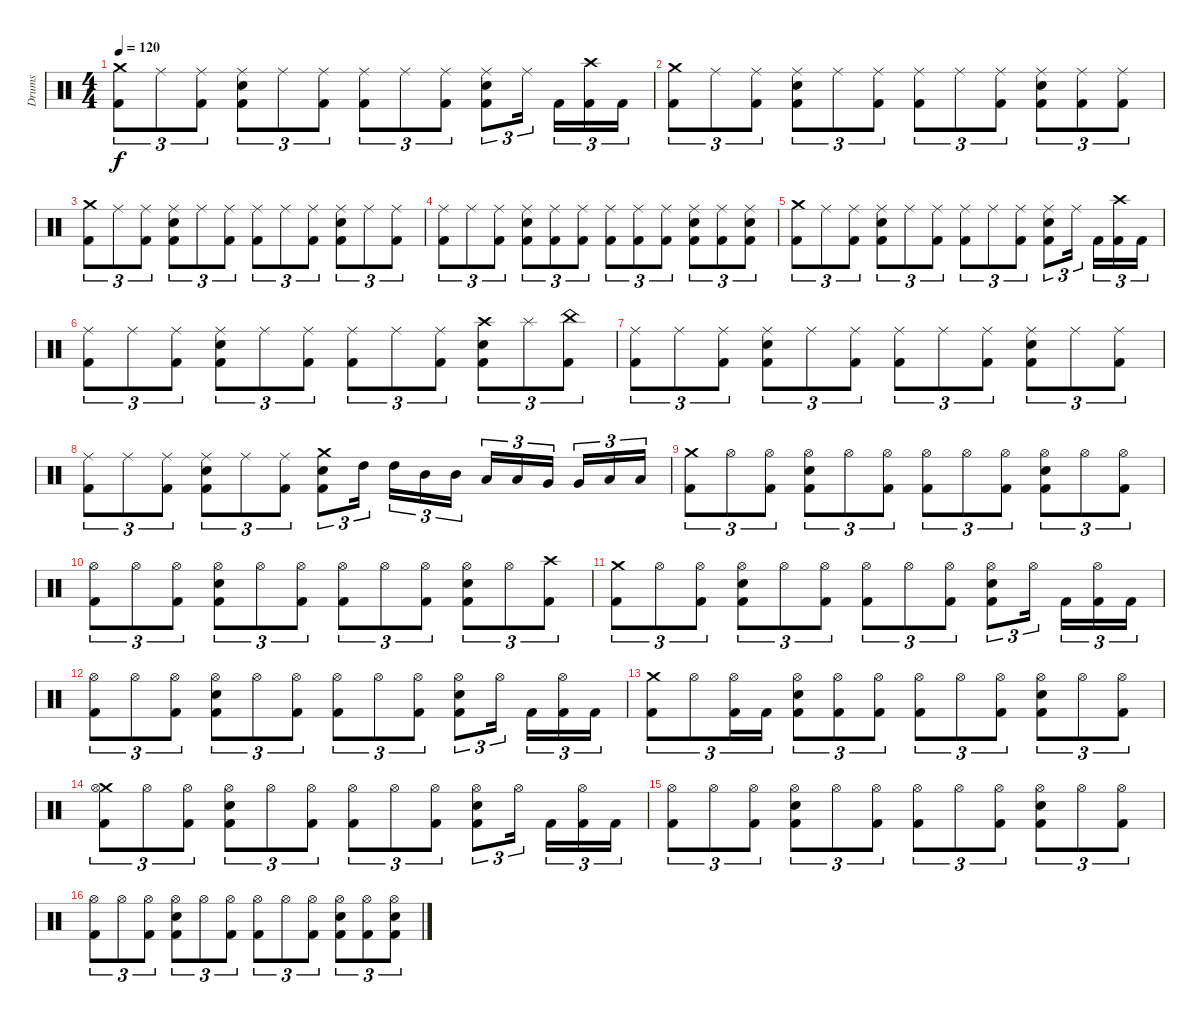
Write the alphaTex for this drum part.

\track ("Drums" "Drums") {instrument percussion}
\staff {score}
\articulation defaults
\ts (4 4)
\tempo 120
\clef neutral
\ks c
("Crash medium (hit)" "Kick (hit) 2").8{tu (3 2) dy f} "Ride (middle)".8{tu (3 2)} ("Ride (middle)" "Kick (hit) 2").8{tu (3 2)} ("Ride (middle)" "Snare (hit) 2" "Kick (hit) 2").8{tu (3 2)} "Ride (middle)".8{tu (3 2)} ("Ride (middle)" "Kick (hit) 2").8{tu (3 2)} ("Ride (middle)" "Kick (hit) 2").8{tu (3 2)} "Ride (middle)".8{tu (3 2)} ("Ride (middle)" "Kick (hit) 2").8{tu (3 2)} ("Ride (middle)" "Snare (hit) 2" "Kick (hit) 2").8{tu (3 2)} "Ride (middle)".16{tu (3 2)} "Kick (hit) 2".16{tu (3 2)} ("Crash high (hit)" "Kick (hit) 2").16{tu (3 2)} "Kick (hit) 2".16{tu (3 2)} |
("Crash medium (hit)" "Kick (hit) 2").8{tu (3 2)} "Ride (middle)".8{tu (3 2)} ("Ride (middle)" "Kick (hit) 2").8{tu (3 2)} ("Ride (middle)" "Snare (hit) 2" "Kick (hit) 2").8{tu (3 2)} "Ride (middle)".8{tu (3 2)} ("Ride (middle)" "Kick (hit) 2").8{tu (3 2)} ("Ride (middle)" "Kick (hit) 2").8{tu (3 2)} "Ride (middle)".8{tu (3 2)} ("Ride (middle)" "Kick (hit) 2").8{tu (3 2)} ("Ride (middle)" "Snare (hit) 2" "Kick (hit) 2").8{tu (3 2)} ("Ride (middle)" "Kick (hit) 2").8{tu (3 2)} ("Ride (middle)" "Kick (hit) 2").8{tu (3 2)} |
("Crash medium (hit)" "Kick (hit) 2").8{tu (3 2)} "Ride (middle)".8{tu (3 2)} ("Ride (middle)" "Kick (hit) 2").8{tu (3 2)} ("Ride (middle)" "Snare (hit) 2" "Kick (hit) 2").8{tu (3 2)} "Ride (middle)".8{tu (3 2)} ("Ride (middle)" "Kick (hit) 2").8{tu (3 2)} ("Ride (middle)" "Kick (hit) 2").8{tu (3 2)} "Ride (middle)".8{tu (3 2)} ("Ride (middle)" "Kick (hit) 2").8{tu (3 2)} ("Ride (middle)" "Snare (hit) 2" "Kick (hit) 2").8{tu (3 2)} "Ride (middle)".8{tu (3 2)} ("Ride (middle)" "Kick (hit) 2").8{tu (3 2)} |
("Ride (middle)" "Kick (hit) 2").8{tu (3 2)} "Ride (middle)".8{tu (3 2)} ("Ride (middle)" "Kick (hit) 2").8{tu (3 2)} ("Ride (middle)" "Snare (hit) 2" "Kick (hit) 2").8{tu (3 2)} ("Ride (middle)" "Kick (hit) 2").8{tu (3 2)} ("Ride (middle)" "Kick (hit) 2").8{tu (3 2)} ("Ride (middle)" "Kick (hit) 2").8{tu (3 2)} ("Ride (middle)" "Kick (hit) 2").8{tu (3 2)} ("Ride (middle)" "Kick (hit) 2").8{tu (3 2)} ("Ride (middle)" "Snare (hit) 2" "Kick (hit) 2").8{tu (3 2)} ("Ride (middle)" "Kick (hit) 2").8{tu (3 2)} ("Ride (middle)" "Snare (hit) 2" "Kick (hit) 2").8{tu (3 2)} |
("Crash medium (hit)" "Kick (hit) 2").8{tu (3 2)} "Ride (middle)".8{tu (3 2)} ("Ride (middle)" "Kick (hit) 2").8{tu (3 2)} ("Ride (middle)" "Snare (hit) 2" "Kick (hit) 2").8{tu (3 2)} "Ride (middle)".8{tu (3 2)} ("Ride (middle)" "Kick (hit) 2").8{tu (3 2)} ("Ride (middle)" "Kick (hit) 2").8{tu (3 2)} "Ride (middle)".8{tu (3 2)} ("Ride (middle)" "Kick (hit) 2").8{tu (3 2)} ("Ride (middle)" "Snare (hit) 2" "Kick (hit) 2").8{tu (3 2)} "Ride (middle)".16{tu (3 2)} "Kick (hit) 2".16{tu (3 2)} ("Crash high (hit)" "Kick (hit) 2").16{tu (3 2)} "Kick (hit) 2".16{tu (3 2)} |
("Ride (middle)" "Kick (hit) 2").8{tu (3 2)} "Ride (middle)".8{tu (3 2)} ("Ride (middle)" "Kick (hit) 2").8{tu (3 2)} ("Ride (middle)" "Snare (hit) 2" "Kick (hit) 2").8{tu (3 2)} "Ride (middle)".8{tu (3 2)} ("Ride (middle)" "Kick (hit) 2").8{tu (3 2)} ("Ride (middle)" "Kick (hit) 2").8{tu (3 2)} "Ride (middle)".8{tu (3 2)} ("Ride (middle)" "Kick (hit) 2").8{tu (3 2)} ("Crash high (hit)" "Snare (hit) 2" "Kick (hit) 2").8{tu (3 2)} "Splash (hit)".8{tu (3 2)} ("China (hit)" "Kick (hit) 2").8{tu (3 2)} |
("Ride (middle)" "Kick (hit) 2").8{tu (3 2)} "Ride (middle)".8{tu (3 2)} ("Ride (middle)" "Kick (hit) 2").8{tu (3 2)} ("Ride (middle)" "Snare (hit) 2" "Kick (hit) 2").8{tu (3 2)} "Ride (middle)".8{tu (3 2)} ("Ride (middle)" "Kick (hit) 2").8{tu (3 2)} ("Ride (middle)" "Kick (hit) 2").8{tu (3 2)} "Ride (middle)".8{tu (3 2)} ("Ride (middle)" "Kick (hit) 2").8{tu (3 2)} ("Ride (middle)" "Snare (hit) 2" "Kick (hit) 2").8{tu (3 2)} "Ride (middle)".8{tu (3 2)} ("Ride (middle)" "Kick (hit) 2").8{tu (3 2)} |
("Ride (middle)" "Kick (hit) 2").8{tu (3 2)} "Ride (middle)".8{tu (3 2)} ("Ride (middle)" "Kick (hit) 2").8{tu (3 2)} ("Ride (middle)" "Snare (hit) 2" "Kick (hit) 2").8{tu (3 2)} "Ride (middle)".8{tu (3 2)} ("Ride (middle)" "Kick (hit) 2").8{tu (3 2)} ("Crash medium (hit)" "Snare (hit) 2" "Kick (hit) 2").8{tu (3 2)} "High Tom (hit)".16{tu (3 2)} "High Tom (hit)".16{tu (3 2)} "Mid Tom (hit)".16{tu (3 2)} "Mid Tom (hit)".16{tu (3 2)} "Low Tom (hit)".16{tu (3 2)} "Low Tom (hit)".16{tu (3 2)} "Very Low Tom (hit)".16{tu (3 2)} "Very Low Tom (hit)".16{tu (3 2)} "Low Floor Tom (hit)".16{tu (3 2)} "Low Floor Tom (hit)".16{tu (3 2)} |
("Crash medium (hit)" "Kick (hit) 2").8{tu (3 2)} "Hi-Hat (open)".8{tu (3 2)} ("Hi-Hat (open)" "Kick (hit) 2").8{tu (3 2)} ("Hi-Hat (open)" "Snare (hit) 2" "Kick (hit) 2").8{tu (3 2)} "Hi-Hat (open)".8{tu (3 2)} ("Hi-Hat (open)" "Kick (hit) 2").8{tu (3 2)} ("Hi-Hat (open)" "Kick (hit) 2").8{tu (3 2)} "Hi-Hat (open)".8{tu (3 2)} ("Hi-Hat (open)" "Kick (hit) 2").8{tu (3 2)} ("Hi-Hat (open)" "Snare (hit) 2" "Kick (hit) 2").8{tu (3 2)} "Hi-Hat (open)".8{tu (3 2)} ("Hi-Hat (open)" "Kick (hit) 2").8{tu (3 2)} |
("Hi-Hat (open)" "Kick (hit) 2").8{tu (3 2)} "Hi-Hat (open)".8{tu (3 2)} ("Hi-Hat (open)" "Kick (hit) 2").8{tu (3 2)} ("Hi-Hat (open)" "Snare (hit) 2" "Kick (hit) 2").8{tu (3 2)} "Hi-Hat (open)".8{tu (3 2)} ("Hi-Hat (open)" "Kick (hit) 2").8{tu (3 2)} ("Hi-Hat (open)" "Kick (hit) 2").8{tu (3 2)} "Hi-Hat (open)".8{tu (3 2)} ("Hi-Hat (open)" "Kick (hit) 2").8{tu (3 2)} ("Hi-Hat (open)" "Snare (hit) 2" "Kick (hit) 2").8{tu (3 2)} "Hi-Hat (open)".8{tu (3 2)} ("Crash high (hit)" "Kick (hit) 2").8{tu (3 2)} |
("Crash medium (hit)" "Kick (hit) 2").8{tu (3 2)} "Hi-Hat (open)".8{tu (3 2)} ("Hi-Hat (open)" "Kick (hit) 2").8{tu (3 2)} ("Hi-Hat (open)" "Snare (hit) 2" "Kick (hit) 2").8{tu (3 2)} "Hi-Hat (open)".8{tu (3 2)} ("Hi-Hat (open)" "Kick (hit) 2").8{tu (3 2)} ("Hi-Hat (open)" "Kick (hit) 2").8{tu (3 2)} "Hi-Hat (open)".8{tu (3 2)} ("Hi-Hat (open)" "Kick (hit) 2").8{tu (3 2)} ("Hi-Hat (open)" "Snare (hit) 2" "Kick (hit) 2").8{tu (3 2)} "Hi-Hat (open)".16{tu (3 2)} "Kick (hit) 2".16{tu (3 2)} ("Hi-Hat (open)" "Kick (hit) 2").16{tu (3 2)} "Kick (hit) 2".16{tu (3 2)} |
("Hi-Hat (open)" "Kick (hit) 2").8{tu (3 2)} "Hi-Hat (open)".8{tu (3 2)} ("Hi-Hat (open)" "Kick (hit) 2").8{tu (3 2)} ("Hi-Hat (open)" "Snare (hit) 2" "Kick (hit) 2").8{tu (3 2)} "Hi-Hat (open)".8{tu (3 2)} ("Hi-Hat (open)" "Kick (hit) 2").8{tu (3 2)} ("Hi-Hat (open)" "Kick (hit) 2").8{tu (3 2)} "Hi-Hat (open)".8{tu (3 2)} ("Hi-Hat (open)" "Kick (hit) 2").8{tu (3 2)} ("Hi-Hat (open)" "Snare (hit) 2" "Kick (hit) 2").8{tu (3 2)} "Hi-Hat (open)".16{tu (3 2)} "Kick (hit) 2".16{tu (3 2)} ("Hi-Hat (open)" "Kick (hit) 2").16{tu (3 2)} "Kick (hit) 2".16{tu (3 2)} |
("Crash medium (hit)" "Kick (hit) 2").8{tu (3 2)} "Hi-Hat (open)".8{tu (3 2)} ("Hi-Hat (open)" "Kick (hit) 2").16{tu (3 2)} "Kick (hit) 2".16{tu (3 2)} ("Hi-Hat (open)" "Snare (hit) 2" "Kick (hit) 2").8{tu (3 2)} ("Hi-Hat (open)" "Kick (hit) 2").8{tu (3 2)} ("Hi-Hat (open)" "Kick (hit) 2").8{tu (3 2)} ("Hi-Hat (open)" "Kick (hit) 2").8{tu (3 2)} "Hi-Hat (open)".8{tu (3 2)} ("Hi-Hat (open)" "Kick (hit) 2").8{tu (3 2)} ("Hi-Hat (open)" "Snare (hit) 2" "Kick (hit) 2").8{tu (3 2)} "Hi-Hat (open)".8{tu (3 2)} ("Hi-Hat (open)" "Kick (hit) 2").8{tu (3 2)} |
("Crash medium (hit)" "Hi-Hat (open)" "Kick (hit) 2").8{tu (3 2)} "Hi-Hat (open)".8{tu (3 2)} ("Hi-Hat (open)" "Kick (hit) 2").8{tu (3 2)} ("Hi-Hat (open)" "Snare (hit) 2" "Kick (hit) 2").8{tu (3 2)} "Hi-Hat (open)".8{tu (3 2)} ("Hi-Hat (open)" "Kick (hit) 2").8{tu (3 2)} ("Hi-Hat (open)" "Kick (hit) 2").8{tu (3 2)} "Hi-Hat (open)".8{tu (3 2)} ("Hi-Hat (open)" "Kick (hit) 2").8{tu (3 2)} ("Hi-Hat (open)" "Snare (hit) 2" "Kick (hit) 2").8{tu (3 2)} "Hi-Hat (open)".16{tu (3 2)} "Kick (hit) 2".16{tu (3 2)} ("Hi-Hat (open)" "Kick (hit) 2").16{tu (3 2)} "Kick (hit) 2".16{tu (3 2)} |
("Hi-Hat (open)" "Kick (hit) 2").8{tu (3 2)} "Hi-Hat (open)".8{tu (3 2)} ("Hi-Hat (open)" "Kick (hit) 2").8{tu (3 2)} ("Hi-Hat (open)" "Snare (hit) 2" "Kick (hit) 2").8{tu (3 2)} "Hi-Hat (open)".8{tu (3 2)} ("Hi-Hat (open)" "Kick (hit) 2").8{tu (3 2)} ("Hi-Hat (open)" "Kick (hit) 2").8{tu (3 2)} "Hi-Hat (open)".8{tu (3 2)} ("Hi-Hat (open)" "Kick (hit) 2").8{tu (3 2)} ("Hi-Hat (open)" "Snare (hit) 2" "Kick (hit) 2").8{tu (3 2)} "Hi-Hat (open)".8{tu (3 2)} ("Hi-Hat (open)" "Kick (hit) 2").8{tu (3 2)} |
("Hi-Hat (open)" "Kick (hit) 2").8{tu (3 2)} "Hi-Hat (open)".8{tu (3 2)} ("Hi-Hat (open)" "Kick (hit) 2").8{tu (3 2)} ("Hi-Hat (open)" "Snare (hit) 2" "Kick (hit) 2").8{tu (3 2)} "Hi-Hat (open)".8{tu (3 2)} ("Hi-Hat (open)" "Kick (hit) 2").8{tu (3 2)} ("Hi-Hat (open)" "Kick (hit) 2").8{tu (3 2)} "Hi-Hat (open)".8{tu (3 2)} ("Hi-Hat (open)" "Kick (hit) 2").8{tu (3 2)} ("Hi-Hat (open)" "Snare (hit) 2" "Kick (hit) 2").8{tu (3 2)} ("Hi-Hat (open)" "Kick (hit) 2").8{tu (3 2)} ("Hi-Hat (open)" "Snare (hit) 2" "Kick (hit) 2").8{tu (3 2)}
